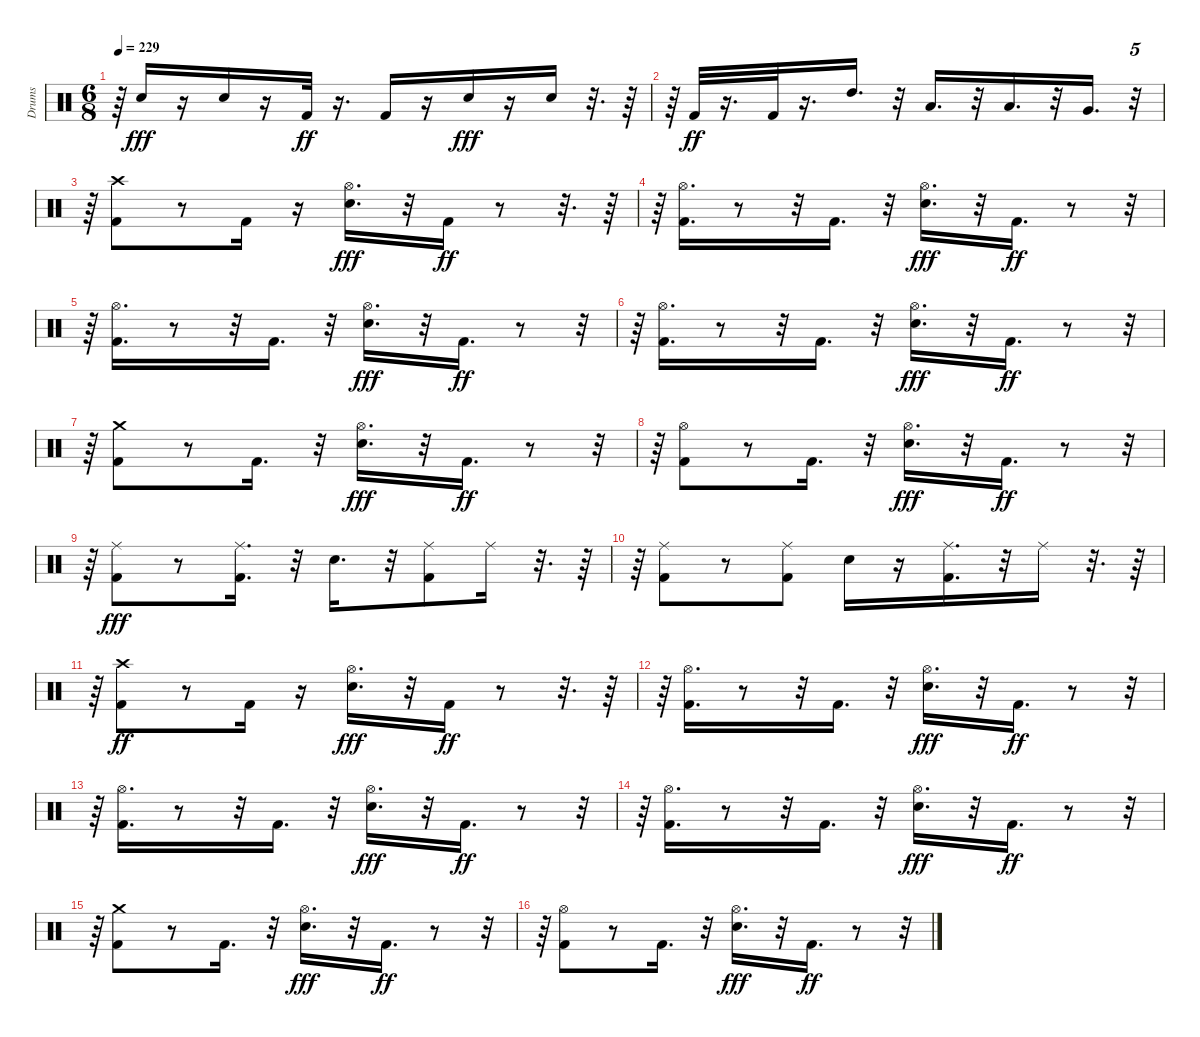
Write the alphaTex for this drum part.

\track ("Drums" "Drums") {instrument percussion}
\staff {score}
\articulation defaults
\ts (6 8)
\tempo 229
\clef neutral
\ks c
r.64{dy ff} "Snare (hit) 2".16{dy fff} r.16 "Snare (hit) 2".16 r.16 "Kick (hit) 2".32{dy ff} r.16{d} "Kick (hit) 2".16 r.16 "Snare (hit) 2".16{dy fff} r.16 "Snare (hit) 2".16 r.32{d} r.64 |
r.64 "Kick (hit) 2".32{dy ff} r.16{d} "Kick (hit) 2".32 r.16{d} "High Tom (hit)".16{d} r.32 "Low Tom (hit)".16{d} r.32 "Low Tom (hit)".16{d} r.32 "Very Low Tom (hit)".16{d} r.32{tu (5 4)} |
r.64 ("Kick (hit) 2" "Crash high (hit)").8 r.8 "Kick (hit) 2".16 r.16 ("Snare (hit) 2" "Hi-Hat (open)").16{d dy fff} r.32 "Kick (hit) 2".16{dy ff} r.8 r.32{d} r.64 |
r.64 ("Kick (hit) 2" "Hi-Hat (open)").16{d} r.8 r.32 "Kick (hit) 2".16{d} r.32 ("Snare (hit) 2" "Hi-Hat (open)").16{d dy fff} r.32 "Kick (hit) 2".16{d dy ff} r.8 r.32{tu (5 4)} |
r.64 ("Kick (hit) 2" "Hi-Hat (open)").16{d} r.8 r.32 "Kick (hit) 2".16{d} r.32 ("Snare (hit) 2" "Hi-Hat (open)").16{d dy fff} r.32 "Kick (hit) 2".16{d dy ff} r.8 r.32{tu (5 4)} |
r.64 ("Kick (hit) 2" "Hi-Hat (open)").16{d} r.8 r.32 "Kick (hit) 2".16{d} r.32 ("Snare (hit) 2" "Hi-Hat (open)").16{d dy fff} r.32 "Kick (hit) 2".16{d dy ff} r.8 r.32{tu (5 4)} |
r.64 ("Kick (hit) 2" "Crash medium (hit)").8 r.8 "Kick (hit) 2".16{d} r.32 ("Snare (hit) 2" "Hi-Hat (open)").16{d dy fff} r.32 "Kick (hit) 2".16{d dy ff} r.8 r.32{tu (5 4)} |
r.64 ("Kick (hit) 2" "Hi-Hat (open)").8 r.8 "Kick (hit) 2".16{d} r.32 ("Snare (hit) 2" "Hi-Hat (open)").16{d dy fff} r.32 "Kick (hit) 2".16{d dy ff} r.8 r.32{tu (5 4)} |
r.64 ("Kick (hit) 2" "Ride (middle)").8{dy fff} r.8 ("Kick (hit) 2" "Ride (middle)").16{d} r.32 "Snare (hit) 2".16{d} r.32 ("Kick (hit) 2" "Ride (middle)").8 "Ride (middle)".16 r.32{d} r.64 |
r.64 ("Kick (hit) 2" "Ride (middle)").8 r.8 ("Kick (hit) 2" "Ride (middle)").8 "Snare (hit) 2".16 r.16 ("Kick (hit) 2" "Ride (middle)").16{d} r.32 "Ride (middle)".16 r.32{d} r.64 |
r.64 ("Kick (hit) 2" "Crash high (hit)").8{dy ff} r.8 "Kick (hit) 2".16 r.16 ("Snare (hit) 2" "Hi-Hat (open)").16{d dy fff} r.32 "Kick (hit) 2".16{dy ff} r.8 r.32{d} r.64 |
r.64 ("Kick (hit) 2" "Hi-Hat (open)").16{d} r.8 r.32 "Kick (hit) 2".16{d} r.32 ("Snare (hit) 2" "Hi-Hat (open)").16{d dy fff} r.32 "Kick (hit) 2".16{d dy ff} r.8 r.32{tu (5 4)} |
r.64 ("Kick (hit) 2" "Hi-Hat (open)").16{d} r.8 r.32 "Kick (hit) 2".16{d} r.32 ("Snare (hit) 2" "Hi-Hat (open)").16{d dy fff} r.32 "Kick (hit) 2".16{d dy ff} r.8 r.32{tu (5 4)} |
r.64 ("Kick (hit) 2" "Hi-Hat (open)").16{d} r.8 r.32 "Kick (hit) 2".16{d} r.32 ("Snare (hit) 2" "Hi-Hat (open)").16{d dy fff} r.32 "Kick (hit) 2".16{d dy ff} r.8 r.32{tu (5 4)} |
r.64 ("Kick (hit) 2" "Crash medium (hit)").8 r.8 "Kick (hit) 2".16{d} r.32 ("Snare (hit) 2" "Hi-Hat (open)").16{d dy fff} r.32 "Kick (hit) 2".16{d dy ff} r.8 r.32{tu (5 4)} |
r.64 ("Kick (hit) 2" "Hi-Hat (open)").8 r.8 "Kick (hit) 2".16{d} r.32 ("Snare (hit) 2" "Hi-Hat (open)").16{d dy fff} r.32 "Kick (hit) 2".16{d dy ff} r.8 r.32{tu (5 4)}
